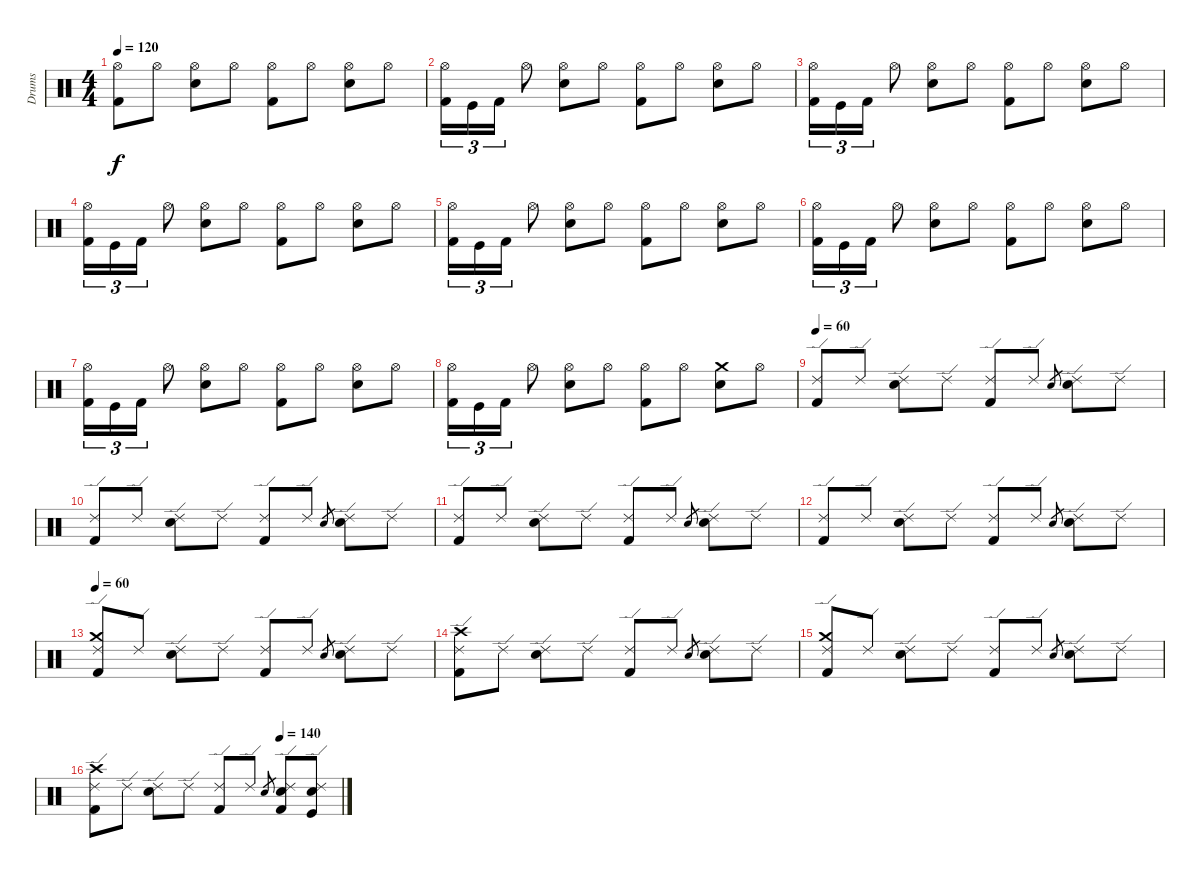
\track ("Drums" "Drums") {instrument percussion}
\staff {score}
\articulation defaults
\ts (4 4)
\tempo 120
\clef neutral
\ks c
("Hi-Hat (open)" "Kick (hit) 2").8{dy f} "Hi-Hat (open)".8 ("Hi-Hat (open)" "Snare (hit) 2").8 "Hi-Hat (open)".8 ("Hi-Hat (open)" "Kick (hit) 2").8 "Hi-Hat (open)".8 ("Hi-Hat (open)" "Snare (hit) 2").8 "Hi-Hat (open)".8 |
("Hi-Hat (open)" "Kick (hit) 2").16{tu (3 2)} "Kick (hit)".16{tu (3 2)} "Kick (hit) 2".16{tu (3 2)} "Hi-Hat (open)".8 ("Hi-Hat (open)" "Snare (hit) 2").8 "Hi-Hat (open)".8 ("Hi-Hat (open)" "Kick (hit) 2").8 "Hi-Hat (open)".8 ("Hi-Hat (open)" "Snare (hit) 2").8 "Hi-Hat (open)".8 |
("Hi-Hat (open)" "Kick (hit) 2").16{tu (3 2)} "Kick (hit)".16{tu (3 2)} "Kick (hit) 2".16{tu (3 2)} "Hi-Hat (open)".8 ("Hi-Hat (open)" "Snare (hit) 2").8 "Hi-Hat (open)".8 ("Hi-Hat (open)" "Kick (hit) 2").8 "Hi-Hat (open)".8 ("Hi-Hat (open)" "Snare (hit) 2").8 "Hi-Hat (open)".8 |
("Hi-Hat (open)" "Kick (hit) 2").16{tu (3 2)} "Kick (hit)".16{tu (3 2)} "Kick (hit) 2".16{tu (3 2)} "Hi-Hat (open)".8 ("Hi-Hat (open)" "Snare (hit) 2").8 "Hi-Hat (open)".8 ("Hi-Hat (open)" "Kick (hit) 2").8 "Hi-Hat (open)".8 ("Hi-Hat (open)" "Snare (hit) 2").8 "Hi-Hat (open)".8 |
("Hi-Hat (open)" "Kick (hit) 2").16{tu (3 2)} "Kick (hit)".16{tu (3 2)} "Kick (hit) 2".16{tu (3 2)} "Hi-Hat (open)".8 ("Hi-Hat (open)" "Snare (hit) 2").8 "Hi-Hat (open)".8 ("Hi-Hat (open)" "Kick (hit) 2").8 "Hi-Hat (open)".8 ("Hi-Hat (open)" "Snare (hit) 2").8 "Hi-Hat (open)".8 |
("Hi-Hat (open)" "Kick (hit) 2").16{tu (3 2)} "Kick (hit)".16{tu (3 2)} "Kick (hit) 2".16{tu (3 2)} "Hi-Hat (open)".8 ("Hi-Hat (open)" "Snare (hit) 2").8 "Hi-Hat (open)".8 ("Hi-Hat (open)" "Kick (hit) 2").8 "Hi-Hat (open)".8 ("Hi-Hat (open)" "Snare (hit) 2").8 "Hi-Hat (open)".8 |
("Hi-Hat (open)" "Kick (hit) 2").16{tu (3 2)} "Kick (hit)".16{tu (3 2)} "Kick (hit) 2".16{tu (3 2)} "Hi-Hat (open)".8 ("Hi-Hat (open)" "Snare (hit) 2").8 "Hi-Hat (open)".8 ("Hi-Hat (open)" "Kick (hit) 2").8 "Hi-Hat (open)".8 ("Hi-Hat (open)" "Snare (hit) 2").8 "Hi-Hat (open)".8 |
("Hi-Hat (open)" "Kick (hit) 2").16{tu (3 2)} "Kick (hit)".16{tu (3 2)} "Kick (hit) 2".16{tu (3 2)} "Hi-Hat (open)".8 ("Hi-Hat (open)" "Snare (hit) 2").8 "Hi-Hat (open)".8 ("Hi-Hat (open)" "Kick (hit) 2").8 "Hi-Hat (open)".8 ("Crash medium (hit)" "Snare (hit) 2").8 "Hi-Hat (open)".8 |
\tempo 60
("Ride (edge) 2" "Kick (hit) 2").8 "Ride (edge) 2".8 ("Ride (edge) 2" "Electric Snare (hit)").8 "Ride (edge) 2".8 ("Ride (edge) 2" "Kick (hit) 2").8 "Ride (edge) 2".8 "Snare (hit) 2".8{gr} ("Ride (edge) 2" "Electric Snare (hit)").8 "Ride (edge) 2".8 |
("Ride (edge) 2" "Kick (hit) 2").8 "Ride (edge) 2".8 ("Ride (edge) 2" "Electric Snare (hit)").8 "Ride (edge) 2".8 ("Ride (edge) 2" "Kick (hit) 2").8 "Ride (edge) 2".8 "Snare (hit) 2".8{gr} ("Ride (edge) 2" "Electric Snare (hit)").8 "Ride (edge) 2".8 |
("Ride (edge) 2" "Kick (hit) 2").8 "Ride (edge) 2".8 ("Ride (edge) 2" "Electric Snare (hit)").8 "Ride (edge) 2".8 ("Ride (edge) 2" "Kick (hit) 2").8 "Ride (edge) 2".8 "Snare (hit) 2".8{gr} ("Ride (edge) 2" "Electric Snare (hit)").8 "Ride (edge) 2".8 |
("Ride (edge) 2" "Kick (hit) 2").8 "Ride (edge) 2".8 ("Ride (edge) 2" "Electric Snare (hit)").8 "Ride (edge) 2".8 ("Ride (edge) 2" "Kick (hit) 2").8 "Ride (edge) 2".8 "Snare (hit) 2".8{gr} ("Ride (edge) 2" "Electric Snare (hit)").8 "Ride (edge) 2".8 |
\tempo 60
("Crash medium (hit)" "Ride (edge) 2" "Kick (hit) 2").8 "Ride (edge) 2".8 ("Ride (edge) 2" "Electric Snare (hit)").8 "Ride (edge) 2".8 ("Ride (edge) 2" "Kick (hit) 2").8 "Ride (edge) 2".8 "Snare (hit) 2".8{gr} ("Ride (edge) 2" "Electric Snare (hit)").8 "Ride (edge) 2".8 |
("Crash high (hit)" "Ride (edge) 2" "Kick (hit) 2").8 "Ride (edge) 2".8 ("Ride (edge) 2" "Electric Snare (hit)").8 "Ride (edge) 2".8 ("Ride (edge) 2" "Kick (hit) 2").8 "Ride (edge) 2".8 "Snare (hit) 2".8{gr} ("Ride (edge) 2" "Electric Snare (hit)").8 "Ride (edge) 2".8 |
("Crash medium (hit)" "Ride (edge) 2" "Kick (hit) 2").8 "Ride (edge) 2".8 ("Ride (edge) 2" "Electric Snare (hit)").8 "Ride (edge) 2".8 ("Ride (edge) 2" "Kick (hit) 2").8 "Ride (edge) 2".8 "Snare (hit) 2".8{gr} ("Ride (edge) 2" "Electric Snare (hit)").8 "Ride (edge) 2".8 |
\tempo (140 0.75)
("Crash high (hit)" "Ride (edge) 2" "Kick (hit) 2").8 "Ride (edge) 2".8 ("Ride (edge) 2" "Electric Snare (hit)").8 "Ride (edge) 2".8 ("Ride (edge) 2" "Kick (hit) 2").8 "Ride (edge) 2".8 "Snare (hit) 2".8{gr} ("Ride (edge) 2" "Electric Snare (hit)" "Kick (hit) 2").8 ("Ride (edge) 2" "Electric Snare (hit)" "Kick (hit)").8
